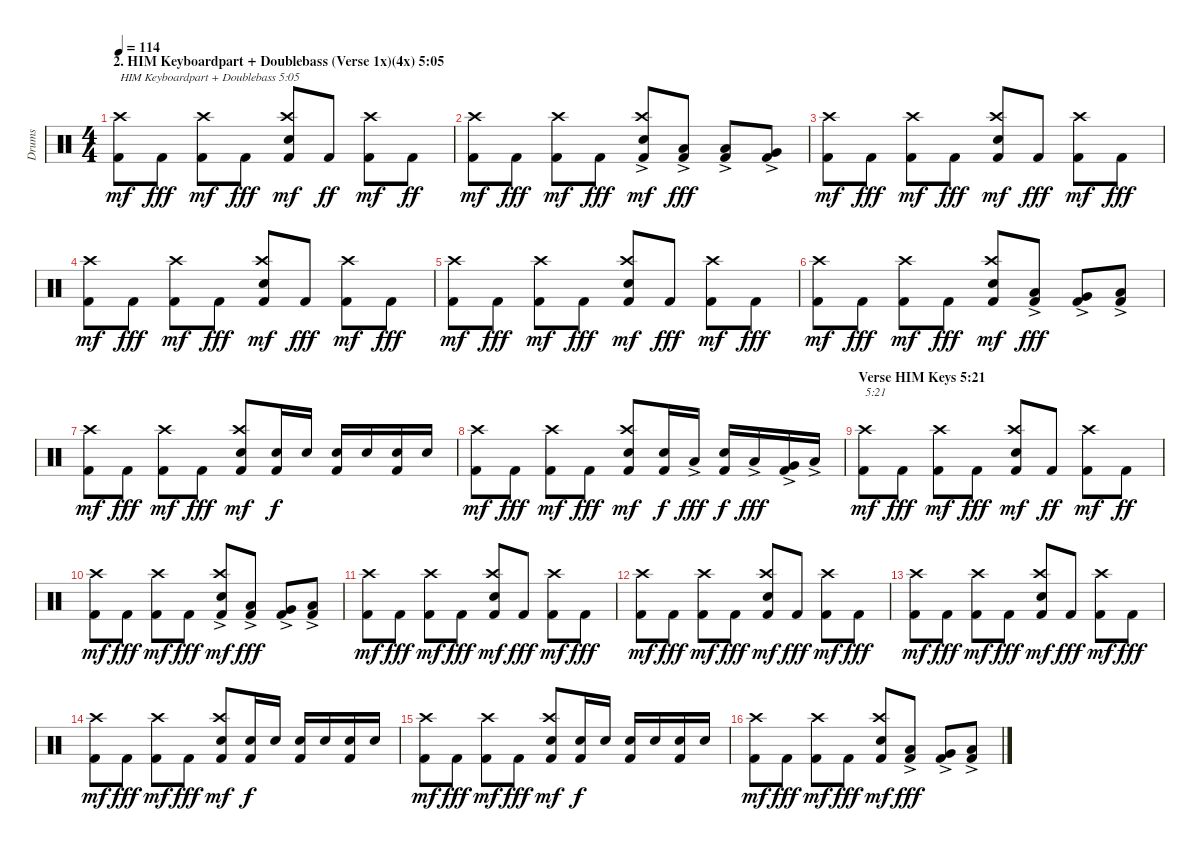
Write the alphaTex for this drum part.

\track ("Drums" "Drums") {instrument percussion}
\staff {score}
\articulation defaults
\ts (4 4)
\section ("" "2. HIM Keyboardpart + Doublebass (Verse 1x)(4x) 5:05")
\tempo 114
\clef neutral
\ks c
("Kick (hit) 2" "Crash high (hit)").8{txt "HIM Keyboardpart + Doublebass 5:05" dy mf} "Kick (hit) 2".8{dy fff} ("Kick (hit) 2" "Crash high (hit)").8{dy mf} "Kick (hit) 2".8{dy fff} ("Kick (hit) 2" "Electric Snare (hit)" "Crash high (hit)").8{dy mf} "Kick (hit) 2".8{dy ff} ("Kick (hit) 2" "Crash high (hit)").8{dy mf} "Kick (hit) 2".8{dy ff} |
("Kick (hit) 2" "Crash high (hit)").8{dy mf} "Kick (hit) 2".8{dy fff} ("Kick (hit) 2" "Crash high (hit)").8{dy mf} "Kick (hit) 2".8{dy fff} ("Kick (hit) 2" "Electric Snare (hit)"{ac} "Crash high (hit)").8{dy mf} ("Kick (hit) 2" "Low Tom (hit)"{ac}).8{dy fff} ("Kick (hit) 2" "Low Tom (hit)"{ac}).8 ("Kick (hit) 2" "Very Low Tom (hit)"{ac}).8 |
("Kick (hit) 2" "Crash high (hit)").8{dy mf} "Kick (hit) 2".8{dy fff} ("Kick (hit) 2" "Crash high (hit)").8{dy mf} "Kick (hit) 2".8{dy fff} ("Kick (hit) 2" "Electric Snare (hit)" "Crash high (hit)").8{dy mf} "Kick (hit) 2".8{dy fff} ("Kick (hit) 2" "Crash high (hit)").8{dy mf} "Kick (hit) 2".8{dy fff} |
("Kick (hit) 2" "Crash high (hit)").8{dy mf} "Kick (hit) 2".8{dy fff} ("Kick (hit) 2" "Crash high (hit)").8{dy mf} "Kick (hit) 2".8{dy fff} ("Kick (hit) 2" "Electric Snare (hit)" "Crash high (hit)").8{dy mf} "Kick (hit) 2".8{dy fff} ("Kick (hit) 2" "Crash high (hit)").8{dy mf} "Kick (hit) 2".8{dy fff} |
("Kick (hit) 2" "Crash high (hit)").8{dy mf} "Kick (hit) 2".8{dy fff} ("Kick (hit) 2" "Crash high (hit)").8{dy mf} "Kick (hit) 2".8{dy fff} ("Kick (hit) 2" "Electric Snare (hit)" "Crash high (hit)").8{dy mf} "Kick (hit) 2".8{dy fff} ("Kick (hit) 2" "Crash high (hit)").8{dy mf} "Kick (hit) 2".8{dy fff} |
("Kick (hit) 2" "Crash high (hit)").8{dy mf} "Kick (hit) 2".8{dy fff} ("Kick (hit) 2" "Crash high (hit)").8{dy mf} "Kick (hit) 2".8{dy fff} ("Kick (hit) 2" "Electric Snare (hit)" "Crash high (hit)").8{dy mf} ("Kick (hit) 2" "Low Tom (hit)"{ac}).8{dy fff} ("Kick (hit) 2" "Very Low Tom (hit)"{ac}).8 ("Kick (hit) 2" "Low Floor Tom (hit)"{ac}).8 |
("Kick (hit) 2" "Crash high (hit)").8{dy mf} "Kick (hit) 2".8{dy fff} ("Kick (hit) 2" "Crash high (hit)").8{dy mf} "Kick (hit) 2".8{dy fff} ("Kick (hit) 2" "Electric Snare (hit)" "Crash high (hit)").8{dy mf} ("Kick (hit) 2" "Electric Snare (hit)").16{dy f} "Electric Snare (hit)".16 ("Kick (hit) 2" "Electric Snare (hit)").16 "Electric Snare (hit)".16 ("Kick (hit) 2" "Electric Snare (hit)").16 "Electric Snare (hit)".16 |
("Kick (hit) 2" "Crash high (hit)").8{dy mf} "Kick (hit) 2".8{dy fff} ("Kick (hit) 2" "Crash high (hit)").8{dy mf} "Kick (hit) 2".8{dy fff} ("Kick (hit) 2" "Electric Snare (hit)" "Crash high (hit)").8{dy mf} ("Kick (hit) 2" "Electric Snare (hit)").16{dy f} "Low Tom (hit)"{ac}.16{dy fff} ("Kick (hit) 2" "Electric Snare (hit)").16{dy f} "Low Tom (hit)"{ac}.16{dy fff} ("Kick (hit) 2" "Very Low Tom (hit)"{ac}).16 "Low Floor Tom (hit)"{ac}.16 |
\section ("" "Verse HIM Keys 5:21")
("Kick (hit) 2" "Crash high (hit)").8{txt "5:21" dy mf} "Kick (hit) 2".8{dy fff} ("Kick (hit) 2" "Crash high (hit)").8{dy mf} "Kick (hit) 2".8{dy fff} ("Kick (hit) 2" "Electric Snare (hit)" "Crash high (hit)").8{dy mf} "Kick (hit) 2".8{dy ff} ("Kick (hit) 2" "Crash high (hit)").8{dy mf} "Kick (hit) 2".8{dy ff} |
("Kick (hit) 2" "Crash high (hit)").8{dy mf} "Kick (hit) 2".8{dy fff} ("Kick (hit) 2" "Crash high (hit)").8{dy mf} "Kick (hit) 2".8{dy fff} ("Kick (hit) 2" "Electric Snare (hit)"{ac} "Crash high (hit)").8{dy mf} ("Kick (hit) 2" "Low Tom (hit)"{ac}).8{dy fff} ("Kick (hit) 2" "Very Low Tom (hit)"{ac}).8 ("Kick (hit) 2" "Low Floor Tom (hit)"{ac}).8 |
("Kick (hit) 2" "Crash high (hit)").8{dy mf} "Kick (hit) 2".8{dy fff} ("Kick (hit) 2" "Crash high (hit)").8{dy mf} "Kick (hit) 2".8{dy fff} ("Kick (hit) 2" "Electric Snare (hit)" "Crash high (hit)").8{dy mf} "Kick (hit) 2".8{dy fff} ("Kick (hit) 2" "Crash high (hit)").8{dy mf} "Kick (hit) 2".8{dy fff} |
("Kick (hit) 2" "Crash high (hit)").8{dy mf} "Kick (hit) 2".8{dy fff} ("Kick (hit) 2" "Crash high (hit)").8{dy mf} "Kick (hit) 2".8{dy fff} ("Kick (hit) 2" "Electric Snare (hit)" "Crash high (hit)").8{dy mf} "Kick (hit) 2".8{dy fff} ("Kick (hit) 2" "Crash high (hit)").8{dy mf} "Kick (hit) 2".8{dy fff} |
("Kick (hit) 2" "Crash high (hit)").8{dy mf} "Kick (hit) 2".8{dy fff} ("Kick (hit) 2" "Crash high (hit)").8{dy mf} "Kick (hit) 2".8{dy fff} ("Kick (hit) 2" "Electric Snare (hit)" "Crash high (hit)").8{dy mf} "Kick (hit) 2".8{dy fff} ("Kick (hit) 2" "Crash high (hit)").8{dy mf} "Kick (hit) 2".8{dy fff} |
("Kick (hit) 2" "Crash high (hit)").8{dy mf} "Kick (hit) 2".8{dy fff} ("Kick (hit) 2" "Crash high (hit)").8{dy mf} "Kick (hit) 2".8{dy fff} ("Kick (hit) 2" "Electric Snare (hit)" "Crash high (hit)").8{dy mf} ("Kick (hit) 2" "Electric Snare (hit)").16{dy f} "Electric Snare (hit)".16 ("Kick (hit) 2" "Electric Snare (hit)").16 "Electric Snare (hit)".16 ("Kick (hit) 2" "Electric Snare (hit)").16 "Electric Snare (hit)".16 |
("Kick (hit) 2" "Crash high (hit)").8{dy mf} "Kick (hit) 2".8{dy fff} ("Kick (hit) 2" "Crash high (hit)").8{dy mf} "Kick (hit) 2".8{dy fff} ("Kick (hit) 2" "Electric Snare (hit)" "Crash high (hit)").8{dy mf} ("Kick (hit) 2" "Electric Snare (hit)").16{dy f} "Electric Snare (hit)".16 ("Kick (hit) 2" "Electric Snare (hit)").16 "Electric Snare (hit)".16 ("Kick (hit) 2" "Electric Snare (hit)").16 "Electric Snare (hit)".16 |
("Kick (hit) 2" "Crash high (hit)").8{dy mf} "Kick (hit) 2".8{dy fff} ("Kick (hit) 2" "Crash high (hit)").8{dy mf} "Kick (hit) 2".8{dy fff} ("Kick (hit) 2" "Electric Snare (hit)" "Crash high (hit)").8{dy mf} ("Kick (hit) 2" "Low Tom (hit)"{ac}).8{dy fff} ("Kick (hit) 2" "Very Low Tom (hit)"{ac}).8 ("Kick (hit) 2" "Low Floor Tom (hit)"{ac}).8
